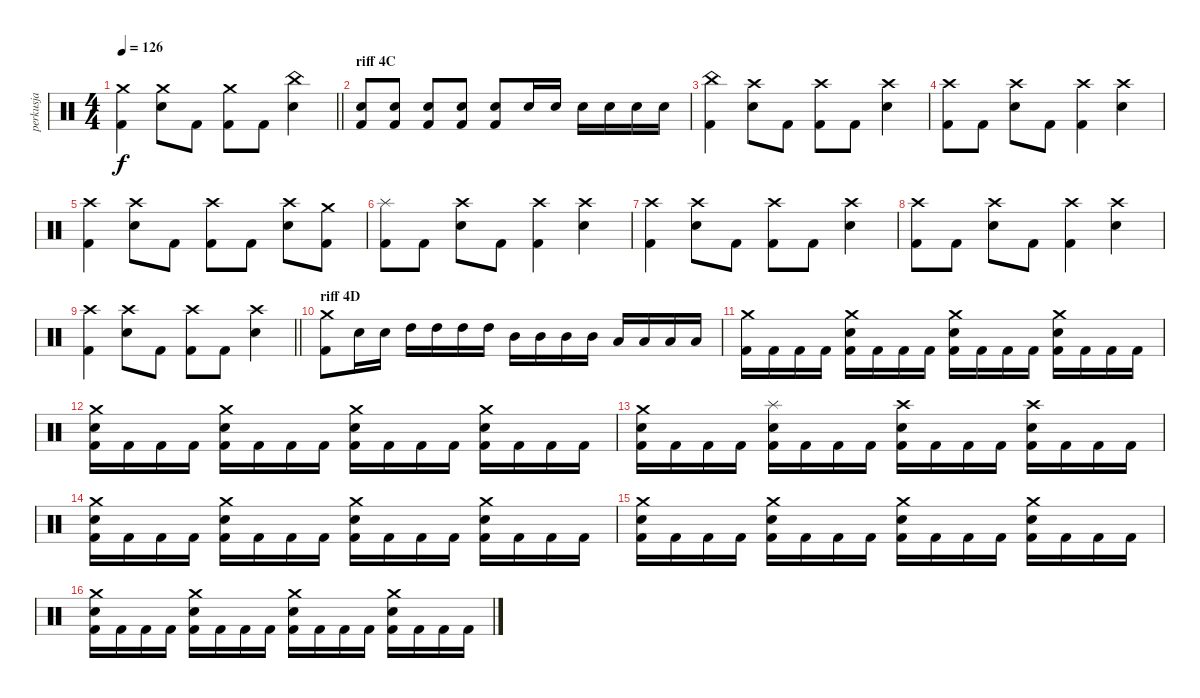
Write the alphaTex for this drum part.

\track ("perkusja" "perkusja") {instrument percussion}
\staff {score}
\articulation defaults
\ts (4 4)
\tempo 126
\clef neutral
\barLineRight lightlight
\ks c
("Crash medium (hit)" "Kick (hit) 2").4{dy f} ("Crash medium (hit)" "Electric Snare (hit)").8 "Kick (hit) 2".8 ("Crash medium (hit)" "Kick (hit) 2").8 "Kick (hit) 2".8 ("China (hit)" "Electric Snare (hit)").4 |
\section ("" "riff 4C")
("Electric Snare (hit)" "Kick (hit) 2").8 ("Electric Snare (hit)" "Kick (hit) 2").8 ("Electric Snare (hit)" "Kick (hit) 2").8 ("Electric Snare (hit)" "Kick (hit) 2").8 ("Electric Snare (hit)" "Kick (hit) 2").8 "Electric Snare (hit)".16 "Electric Snare (hit)".16 "Electric Snare (hit)".16 "Electric Snare (hit)".16 "Electric Snare (hit)".16 "Electric Snare (hit)".16 |
("China (hit)" "Kick (hit) 2").4 ("Crash high (hit)" "Electric Snare (hit)").8 "Kick (hit) 2".8 ("Crash high (hit)" "Kick (hit) 2").8 "Kick (hit) 2".8 ("Crash high (hit)" "Electric Snare (hit)").4 |
("Crash high (hit)" "Kick (hit) 2").8 "Kick (hit) 2".8 ("Crash high (hit)" "Electric Snare (hit)").8 "Kick (hit) 2".8 ("Crash high (hit)" "Kick (hit) 2").4 ("Crash high (hit)" "Electric Snare (hit)").4 |
("Crash high (hit)" "Kick (hit) 2").4 ("Crash high (hit)" "Electric Snare (hit)").8 "Kick (hit) 2".8 ("Crash high (hit)" "Kick (hit) 2").8 "Kick (hit) 2".8 ("Crash high (hit)" "Electric Snare (hit)").8 ("Crash medium (hit)" "Kick (hit) 2").8 |
("Splash (hit)" "Kick (hit) 2").8 "Kick (hit) 2".8 ("Crash high (hit)" "Electric Snare (hit)").8 "Kick (hit) 2".8 ("Crash high (hit)" "Kick (hit) 2").4 ("Crash high (hit)" "Electric Snare (hit)").4 |
("Crash high (hit)" "Kick (hit) 2").4 ("Crash high (hit)" "Electric Snare (hit)").8 "Kick (hit) 2".8 ("Crash high (hit)" "Kick (hit) 2").8 "Kick (hit) 2".8 ("Crash high (hit)" "Electric Snare (hit)").4 |
("Crash high (hit)" "Kick (hit) 2").8 "Kick (hit) 2".8 ("Crash high (hit)" "Electric Snare (hit)").8 "Kick (hit) 2".8 ("Crash high (hit)" "Kick (hit) 2").4 ("Crash high (hit)" "Electric Snare (hit)").4 |
\barLineRight lightlight
("Crash high (hit)" "Kick (hit) 2").4 ("Crash high (hit)" "Electric Snare (hit)").8 "Kick (hit) 2".8 ("Crash high (hit)" "Kick (hit) 2").8 "Kick (hit) 2".8 ("Crash high (hit)" "Electric Snare (hit)").4 |
\section ("" "riff 4D")
("Crash medium (hit)" "Kick (hit) 2").8 "Electric Snare (hit)".16 "Electric Snare (hit)".16 "High Tom (hit)".16 "High Tom (hit)".16 "High Tom (hit)".16 "High Tom (hit)".16 "Mid Tom (hit)".16 "Mid Tom (hit)".16 "Mid Tom (hit)".16 "Mid Tom (hit)".16 "Low Tom (hit)".16 "Low Tom (hit)".16 "Low Tom (hit)".16 "Low Tom (hit)".16 |
("Crash medium (hit)" "Kick (hit) 2").16 "Kick (hit) 2".16 "Kick (hit) 2".16 "Kick (hit) 2".16 ("Crash medium (hit)" "Electric Snare (hit)" "Kick (hit) 2").16 "Kick (hit) 2".16 "Kick (hit) 2".16 "Kick (hit) 2".16 ("Crash medium (hit)" "Electric Snare (hit)" "Kick (hit) 2").16 "Kick (hit) 2".16 "Kick (hit) 2".16 "Kick (hit) 2".16 ("Crash medium (hit)" "Electric Snare (hit)" "Kick (hit) 2").16 "Kick (hit) 2".16 "Kick (hit) 2".16 "Kick (hit) 2".16 |
("Crash medium (hit)" "Electric Snare (hit)" "Kick (hit) 2").16 "Kick (hit) 2".16 "Kick (hit) 2".16 "Kick (hit) 2".16 ("Crash medium (hit)" "Electric Snare (hit)" "Kick (hit) 2").16 "Kick (hit) 2".16 "Kick (hit) 2".16 "Kick (hit) 2".16 ("Crash medium (hit)" "Electric Snare (hit)" "Kick (hit) 2").16 "Kick (hit) 2".16 "Kick (hit) 2".16 "Kick (hit) 2".16 ("Crash medium (hit)" "Electric Snare (hit)" "Kick (hit) 2").16 "Kick (hit) 2".16 "Kick (hit) 2".16 "Kick (hit) 2".16 |
("Crash medium (hit)" "Electric Snare (hit)" "Kick (hit) 2").16 "Kick (hit) 2".16 "Kick (hit) 2".16 "Kick (hit) 2".16 ("Splash (hit)" "Electric Snare (hit)" "Kick (hit) 2").16 "Kick (hit) 2".16 "Kick (hit) 2".16 "Kick (hit) 2".16 ("Crash high (hit)" "Electric Snare (hit)" "Kick (hit) 2").16 "Kick (hit) 2".16 "Kick (hit) 2".16 "Kick (hit) 2".16 ("Crash high (hit)" "Electric Snare (hit)" "Kick (hit) 2").16 "Kick (hit) 2".16 "Kick (hit) 2".16 "Kick (hit) 2".16 |
("Crash medium (hit)" "Electric Snare (hit)" "Kick (hit) 2").16 "Kick (hit) 2".16 "Kick (hit) 2".16 "Kick (hit) 2".16 ("Crash medium (hit)" "Electric Snare (hit)" "Kick (hit) 2").16 "Kick (hit) 2".16 "Kick (hit) 2".16 "Kick (hit) 2".16 ("Crash medium (hit)" "Electric Snare (hit)" "Kick (hit) 2").16 "Kick (hit) 2".16 "Kick (hit) 2".16 "Kick (hit) 2".16 ("Crash medium (hit)" "Electric Snare (hit)" "Kick (hit) 2").16 "Kick (hit) 2".16 "Kick (hit) 2".16 "Kick (hit) 2".16 |
("Crash medium (hit)" "Electric Snare (hit)" "Kick (hit) 2").16 "Kick (hit) 2".16 "Kick (hit) 2".16 "Kick (hit) 2".16 ("Crash medium (hit)" "Electric Snare (hit)" "Kick (hit) 2").16 "Kick (hit) 2".16 "Kick (hit) 2".16 "Kick (hit) 2".16 ("Crash medium (hit)" "Electric Snare (hit)" "Kick (hit) 2").16 "Kick (hit) 2".16 "Kick (hit) 2".16 "Kick (hit) 2".16 ("Crash medium (hit)" "Electric Snare (hit)" "Kick (hit) 2").16 "Kick (hit) 2".16 "Kick (hit) 2".16 "Kick (hit) 2".16 |
("Crash medium (hit)" "Electric Snare (hit)" "Kick (hit) 2").16 "Kick (hit) 2".16 "Kick (hit) 2".16 "Kick (hit) 2".16 ("Crash medium (hit)" "Electric Snare (hit)" "Kick (hit) 2").16 "Kick (hit) 2".16 "Kick (hit) 2".16 "Kick (hit) 2".16 ("Crash medium (hit)" "Electric Snare (hit)" "Kick (hit) 2").16 "Kick (hit) 2".16 "Kick (hit) 2".16 "Kick (hit) 2".16 ("Crash medium (hit)" "Electric Snare (hit)" "Kick (hit) 2").16 "Kick (hit) 2".16 "Kick (hit) 2".16 "Kick (hit) 2".16
